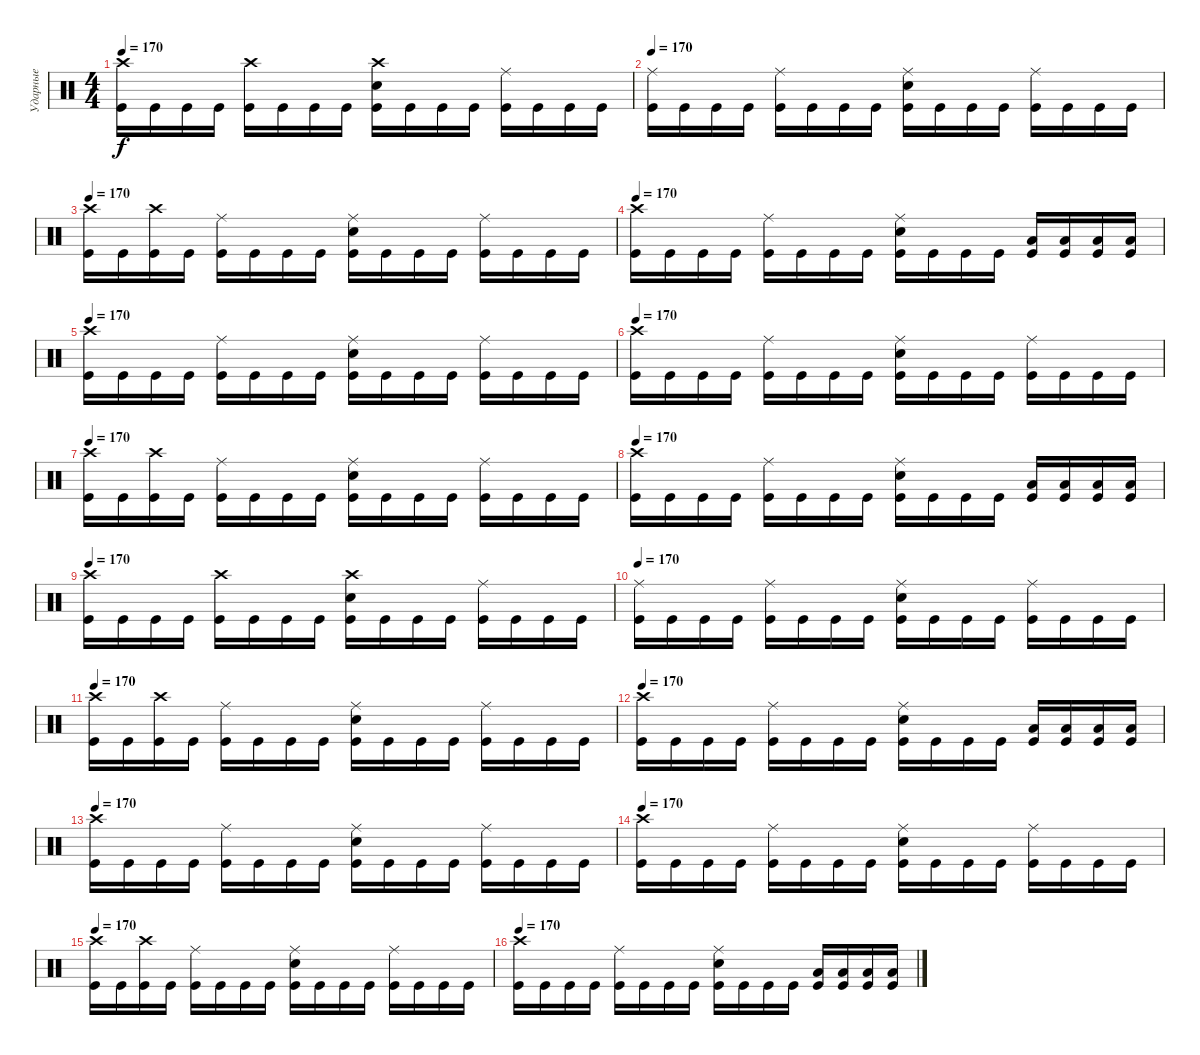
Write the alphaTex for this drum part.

\track ("Ударные" "Ударные") {instrument percussion}
\staff {score}
\articulation defaults
\ts (4 4)
\tempo 170
\clef neutral
\ks c
("Crash high (hit)" "Kick (hit)").16{dy f} "Kick (hit)".16 "Kick (hit)".16 "Kick (hit)".16 ("Crash high (hit)" "Kick (hit)").16 "Kick (hit)".16 "Kick (hit)".16 "Kick (hit)".16 ("Crash high (hit)" "Electric Snare (hit)" "Kick (hit)").16 "Kick (hit)".16 "Kick (hit)".16 "Kick (hit)".16 ("Ride (middle)" "Kick (hit)").16 "Kick (hit)".16 "Kick (hit)".16 "Kick (hit)".16 |
\tempo 170
("Ride (middle)" "Kick (hit)").16 "Kick (hit)".16 "Kick (hit)".16 "Kick (hit)".16 ("Ride (middle)" "Kick (hit)").16 "Kick (hit)".16 "Kick (hit)".16 "Kick (hit)".16 ("Ride (middle)" "Electric Snare (hit)" "Kick (hit)").16 "Kick (hit)".16 "Kick (hit)".16 "Kick (hit)".16 ("Ride (middle)" "Kick (hit)").16 "Kick (hit)".16 "Kick (hit)".16 "Kick (hit)".16 |
\tempo 170
("Crash high (hit)" "Kick (hit)").16 "Kick (hit)".16 ("Crash high (hit)" "Kick (hit)").16 "Kick (hit)".16 ("Ride (middle)" "Kick (hit)").16 "Kick (hit)".16 "Kick (hit)".16 "Kick (hit)".16 ("Ride (middle)" "Electric Snare (hit)" "Kick (hit)").16 "Kick (hit)".16 "Kick (hit)".16 "Kick (hit)".16 ("Ride (middle)" "Kick (hit)").16 "Kick (hit)".16 "Kick (hit)".16 "Kick (hit)".16 |
\tempo 170
("Crash high (hit)" "Kick (hit)").16 "Kick (hit)".16 "Kick (hit)".16 "Kick (hit)".16 ("Ride (middle)" "Kick (hit)").16 "Kick (hit)".16 "Kick (hit)".16 "Kick (hit)".16 ("Ride (middle)" "Electric Snare (hit)" "Kick (hit)").16 "Kick (hit)".16 "Kick (hit)".16 "Kick (hit)".16 ("Low Tom (hit)" "Kick (hit)").16 ("Low Tom (hit)" "Kick (hit)").16 ("Low Tom (hit)" "Kick (hit)").16 ("Low Tom (hit)" "Kick (hit)").16 |
\tempo 170
("Crash high (hit)" "Kick (hit)").16 "Kick (hit)".16 "Kick (hit)".16 "Kick (hit)".16 ("Ride (middle)" "Kick (hit)").16 "Kick (hit)".16 "Kick (hit)".16 "Kick (hit)".16 ("Ride (middle)" "Electric Snare (hit)" "Kick (hit)").16 "Kick (hit)".16 "Kick (hit)".16 "Kick (hit)".16 ("Ride (middle)" "Kick (hit)").16 "Kick (hit)".16 "Kick (hit)".16 "Kick (hit)".16 |
\tempo 170
("Crash high (hit)" "Kick (hit)").16 "Kick (hit)".16 "Kick (hit)".16 "Kick (hit)".16 ("Ride (middle)" "Kick (hit)").16 "Kick (hit)".16 "Kick (hit)".16 "Kick (hit)".16 ("Ride (middle)" "Electric Snare (hit)" "Kick (hit)").16 "Kick (hit)".16 "Kick (hit)".16 "Kick (hit)".16 ("Ride (middle)" "Kick (hit)").16 "Kick (hit)".16 "Kick (hit)".16 "Kick (hit)".16 |
\tempo 170
("Crash high (hit)" "Kick (hit)").16 "Kick (hit)".16 ("Crash high (hit)" "Kick (hit)").16 "Kick (hit)".16 ("Ride (middle)" "Kick (hit)").16 "Kick (hit)".16 "Kick (hit)".16 "Kick (hit)".16 ("Ride (middle)" "Electric Snare (hit)" "Kick (hit)").16 "Kick (hit)".16 "Kick (hit)".16 "Kick (hit)".16 ("Ride (middle)" "Kick (hit)").16 "Kick (hit)".16 "Kick (hit)".16 "Kick (hit)".16 |
\tempo 170
("Crash high (hit)" "Kick (hit)").16 "Kick (hit)".16 "Kick (hit)".16 "Kick (hit)".16 ("Ride (middle)" "Kick (hit)").16 "Kick (hit)".16 "Kick (hit)".16 "Kick (hit)".16 ("Ride (middle)" "Electric Snare (hit)" "Kick (hit)").16 "Kick (hit)".16 "Kick (hit)".16 "Kick (hit)".16 ("Low Tom (hit)" "Kick (hit)").16 ("Low Tom (hit)" "Kick (hit)").16 ("Low Tom (hit)" "Kick (hit)").16 ("Low Tom (hit)" "Kick (hit)").16 |
\tempo 170
("Crash high (hit)" "Kick (hit)").16 "Kick (hit)".16 "Kick (hit)".16 "Kick (hit)".16 ("Crash high (hit)" "Kick (hit)").16 "Kick (hit)".16 "Kick (hit)".16 "Kick (hit)".16 ("Crash high (hit)" "Electric Snare (hit)" "Kick (hit)").16 "Kick (hit)".16 "Kick (hit)".16 "Kick (hit)".16 ("Ride (middle)" "Kick (hit)").16 "Kick (hit)".16 "Kick (hit)".16 "Kick (hit)".16 |
\tempo 170
("Ride (middle)" "Kick (hit)").16 "Kick (hit)".16 "Kick (hit)".16 "Kick (hit)".16 ("Ride (middle)" "Kick (hit)").16 "Kick (hit)".16 "Kick (hit)".16 "Kick (hit)".16 ("Ride (middle)" "Electric Snare (hit)" "Kick (hit)").16 "Kick (hit)".16 "Kick (hit)".16 "Kick (hit)".16 ("Ride (middle)" "Kick (hit)").16 "Kick (hit)".16 "Kick (hit)".16 "Kick (hit)".16 |
\tempo 170
("Crash high (hit)" "Kick (hit)").16 "Kick (hit)".16 ("Crash high (hit)" "Kick (hit)").16 "Kick (hit)".16 ("Ride (middle)" "Kick (hit)").16 "Kick (hit)".16 "Kick (hit)".16 "Kick (hit)".16 ("Ride (middle)" "Electric Snare (hit)" "Kick (hit)").16 "Kick (hit)".16 "Kick (hit)".16 "Kick (hit)".16 ("Ride (middle)" "Kick (hit)").16 "Kick (hit)".16 "Kick (hit)".16 "Kick (hit)".16 |
\tempo 170
("Crash high (hit)" "Kick (hit)").16 "Kick (hit)".16 "Kick (hit)".16 "Kick (hit)".16 ("Ride (middle)" "Kick (hit)").16 "Kick (hit)".16 "Kick (hit)".16 "Kick (hit)".16 ("Ride (middle)" "Electric Snare (hit)" "Kick (hit)").16 "Kick (hit)".16 "Kick (hit)".16 "Kick (hit)".16 ("Low Tom (hit)" "Kick (hit)").16 ("Low Tom (hit)" "Kick (hit)").16 ("Low Tom (hit)" "Kick (hit)").16 ("Low Tom (hit)" "Kick (hit)").16 |
\tempo 170
("Crash high (hit)" "Kick (hit)").16 "Kick (hit)".16 "Kick (hit)".16 "Kick (hit)".16 ("Ride (middle)" "Kick (hit)").16 "Kick (hit)".16 "Kick (hit)".16 "Kick (hit)".16 ("Ride (middle)" "Electric Snare (hit)" "Kick (hit)").16 "Kick (hit)".16 "Kick (hit)".16 "Kick (hit)".16 ("Ride (middle)" "Kick (hit)").16 "Kick (hit)".16 "Kick (hit)".16 "Kick (hit)".16 |
\tempo 170
("Crash high (hit)" "Kick (hit)").16 "Kick (hit)".16 "Kick (hit)".16 "Kick (hit)".16 ("Ride (middle)" "Kick (hit)").16 "Kick (hit)".16 "Kick (hit)".16 "Kick (hit)".16 ("Ride (middle)" "Electric Snare (hit)" "Kick (hit)").16 "Kick (hit)".16 "Kick (hit)".16 "Kick (hit)".16 ("Ride (middle)" "Kick (hit)").16 "Kick (hit)".16 "Kick (hit)".16 "Kick (hit)".16 |
\tempo 170
("Crash high (hit)" "Kick (hit)").16 "Kick (hit)".16 ("Crash high (hit)" "Kick (hit)").16 "Kick (hit)".16 ("Ride (middle)" "Kick (hit)").16 "Kick (hit)".16 "Kick (hit)".16 "Kick (hit)".16 ("Ride (middle)" "Electric Snare (hit)" "Kick (hit)").16 "Kick (hit)".16 "Kick (hit)".16 "Kick (hit)".16 ("Ride (middle)" "Kick (hit)").16 "Kick (hit)".16 "Kick (hit)".16 "Kick (hit)".16 |
\tempo 170
("Crash high (hit)" "Kick (hit)").16 "Kick (hit)".16 "Kick (hit)".16 "Kick (hit)".16 ("Ride (middle)" "Kick (hit)").16 "Kick (hit)".16 "Kick (hit)".16 "Kick (hit)".16 ("Ride (middle)" "Electric Snare (hit)" "Kick (hit)").16 "Kick (hit)".16 "Kick (hit)".16 "Kick (hit)".16 ("Low Tom (hit)" "Kick (hit)").16 ("Low Tom (hit)" "Kick (hit)").16 ("Low Tom (hit)" "Kick (hit)").16 ("Low Tom (hit)" "Kick (hit)").16
